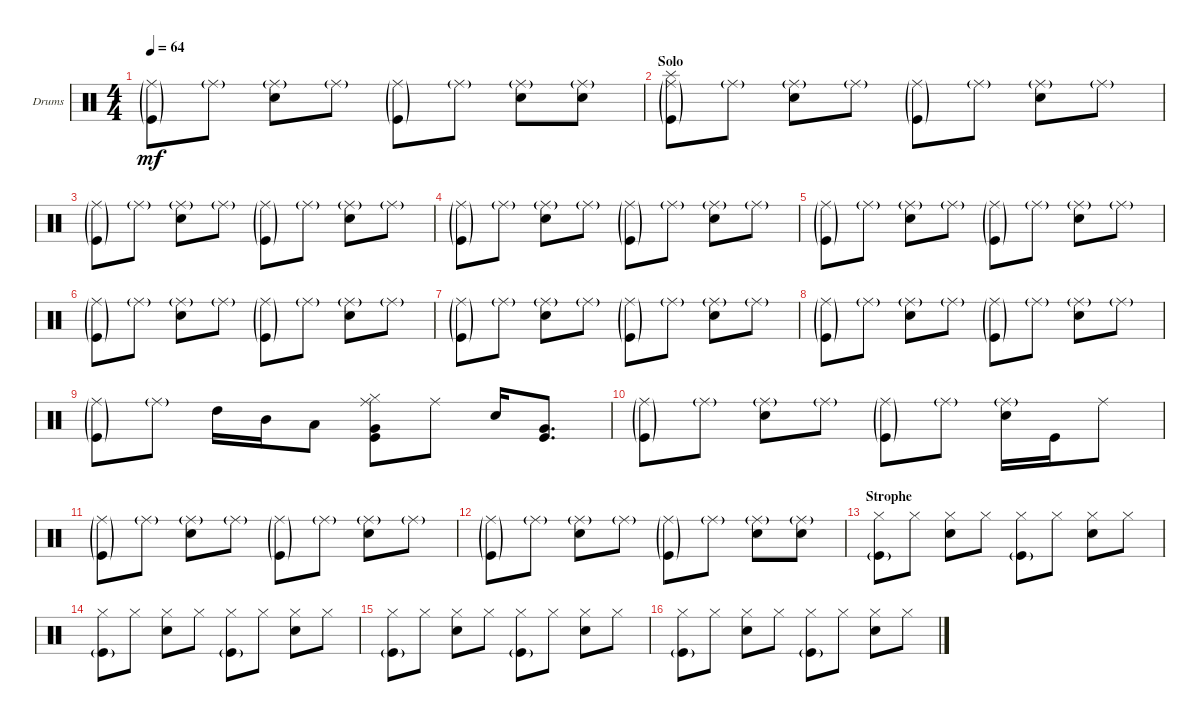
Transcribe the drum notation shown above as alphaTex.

\defaultSystemsLayout 4
\bracketExtendMode groupsimilarinstruments
\firstSystemTrackNameOrientation horizontal
\otherSystemsTrackNameOrientation horizontal
\track ("Drumkit" "Drums") {instrument percussion}
\staff {score}
\articulation defaults
\ts (4 4)
\tempo 64
\clef neutral
\ks c
("Ride (middle)"{g} "Kick (hit)"{g}).8{dy mf} "Ride (middle)"{g}.8 ("Ride (middle)"{g} "Snare (hit) 2").8 "Ride (middle)"{g}.8 ("Ride (middle)"{g} "Kick (hit)"{g}).8 "Ride (middle)"{g}.8 ("Ride (middle)"{g} "Snare (hit) 2").8 ("Ride (middle)"{g} "Snare (hit) 2").8 |
\section ("" "Solo")
("Ride (middle)"{g} "Splash (hit)" "Kick (hit)"{g}).8 "Ride (middle)"{g}.8 ("Ride (middle)"{g} "Snare (hit) 2").8 "Ride (middle)"{g}.8 ("Ride (middle)"{g} "Kick (hit)"{g}).8 "Ride (middle)"{g}.8 ("Ride (middle)"{g} "Snare (hit) 2").8 "Ride (middle)"{g}.8 |
("Ride (middle)"{g} "Kick (hit)"{g}).8 "Ride (middle)"{g}.8 ("Ride (middle)"{g} "Snare (hit) 2").8 "Ride (middle)"{g}.8 ("Ride (middle)"{g} "Kick (hit)"{g}).8 "Ride (middle)"{g}.8 ("Ride (middle)"{g} "Snare (hit) 2").8 "Ride (middle)"{g}.8 |
("Ride (middle)"{g} "Kick (hit)"{g}).8 "Ride (middle)"{g}.8 ("Ride (middle)"{g} "Snare (hit) 2").8 "Ride (middle)"{g}.8 ("Ride (middle)"{g} "Kick (hit)"{g}).8 "Ride (middle)"{g}.8 ("Ride (middle)"{g} "Snare (hit) 2").8 "Ride (middle)"{g}.8 |
("Ride (middle)"{g} "Kick (hit)"{g}).8 "Ride (middle)"{g}.8 ("Ride (middle)"{g} "Snare (hit) 2").8 "Ride (middle)"{g}.8 ("Ride (middle)"{g} "Kick (hit)"{g}).8 "Ride (middle)"{g}.8 ("Ride (middle)"{g} "Snare (hit) 2").8 "Ride (middle)"{g}.8 |
("Ride (middle)"{g} "Kick (hit)"{g}).8 "Ride (middle)"{g}.8 ("Ride (middle)"{g} "Snare (hit) 2").8 "Ride (middle)"{g}.8 ("Ride (middle)"{g} "Kick (hit)"{g}).8 "Ride (middle)"{g}.8 ("Ride (middle)"{g} "Snare (hit) 2").8 "Ride (middle)"{g}.8 |
("Ride (middle)"{g} "Kick (hit)"{g}).8 "Ride (middle)"{g}.8 ("Ride (middle)"{g} "Snare (hit) 2").8 "Ride (middle)"{g}.8 ("Ride (middle)"{g} "Kick (hit)"{g}).8 "Ride (middle)"{g}.8 ("Ride (middle)"{g} "Snare (hit) 2").8 "Ride (middle)"{g}.8 |
("Ride (middle)"{g} "Kick (hit)"{g}).8 "Ride (middle)"{g}.8 ("Ride (middle)"{g} "Snare (hit) 2").8 "Ride (middle)"{g}.8 ("Ride (middle)"{g} "Kick (hit)"{g}).8 "Ride (middle)"{g}.8 ("Ride (middle)"{g} "Snare (hit) 2").8 "Ride (middle)"{g}.8 |
("Ride (middle)"{g} "Kick (hit)"{g}).8 "Ride (middle)"{g}.8 "High Tom (hit)".16 "Mid Tom (hit)".16 "Low Tom (hit)".8 ("Ride (middle)" "Hi-Hat (closed)" "Kick (hit)" "Very Low Tom (hit)").8 "Ride (middle)".8 "Snare (hit) 2".16 ("Very Low Tom (hit)" "Kick (hit)").8{d} |
("Ride (middle)"{g} "Kick (hit)"{g}).8 "Ride (middle)"{g}.8 ("Ride (middle)"{g} "Snare (hit) 2").8 "Ride (middle)"{g}.8 ("Ride (middle)"{g} "Kick (hit)"{g}).8 "Ride (middle)"{g}.8 ("Ride (middle)"{g} "Snare (hit) 2").16 "Kick (hit)".16 "Ride (middle)".8 |
("Ride (middle)"{g} "Kick (hit)"{g}).8 "Ride (middle)"{g}.8 ("Ride (middle)"{g} "Snare (hit) 2").8 "Ride (middle)"{g}.8 ("Ride (middle)"{g} "Kick (hit)"{g}).8 "Ride (middle)"{g}.8 ("Ride (middle)"{g} "Snare (hit) 2").8 "Ride (middle)"{g}.8 |
("Ride (middle)"{g} "Kick (hit)"{g}).8 "Ride (middle)"{g}.8 ("Ride (middle)"{g} "Snare (hit) 2").8 "Ride (middle)"{g}.8 ("Ride (middle)"{g} "Kick (hit)"{g}).8 "Ride (middle)"{g}.8 ("Ride (middle)"{g} "Snare (hit) 2").8 ("Ride (middle)"{g} "Snare (hit) 2").8 |
\section ("" "Strophe")
("Hi-Hat (closed)" "Kick (hit)"{g}).8 "Hi-Hat (closed)".8 ("Hi-Hat (closed)" "Snare (hit) 2").8 "Hi-Hat (closed)".8 ("Hi-Hat (closed)" "Kick (hit)"{g}).8 "Hi-Hat (closed)".8 ("Hi-Hat (closed)" "Snare (hit) 2").8 "Hi-Hat (closed)".8 |
("Hi-Hat (closed)" "Kick (hit)"{g}).8 "Hi-Hat (closed)".8 ("Hi-Hat (closed)" "Snare (hit) 2").8 "Hi-Hat (closed)".8 ("Hi-Hat (closed)" "Kick (hit)"{g}).8 "Hi-Hat (closed)".8 ("Hi-Hat (closed)" "Snare (hit) 2").8 "Hi-Hat (closed)".8 |
("Hi-Hat (closed)" "Kick (hit)"{g}).8 "Hi-Hat (closed)".8 ("Hi-Hat (closed)" "Snare (hit) 2").8 "Hi-Hat (closed)".8 ("Hi-Hat (closed)" "Kick (hit)"{g}).8 "Hi-Hat (closed)".8 ("Hi-Hat (closed)" "Snare (hit) 2").8 "Hi-Hat (closed)".8 |
("Hi-Hat (closed)" "Kick (hit)"{g}).8 "Hi-Hat (closed)".8 ("Hi-Hat (closed)" "Snare (hit) 2").8 "Hi-Hat (closed)".8 ("Hi-Hat (closed)" "Kick (hit)"{g}).8 "Hi-Hat (closed)".8 ("Hi-Hat (closed)" "Snare (hit) 2").8 "Hi-Hat (closed)".8
